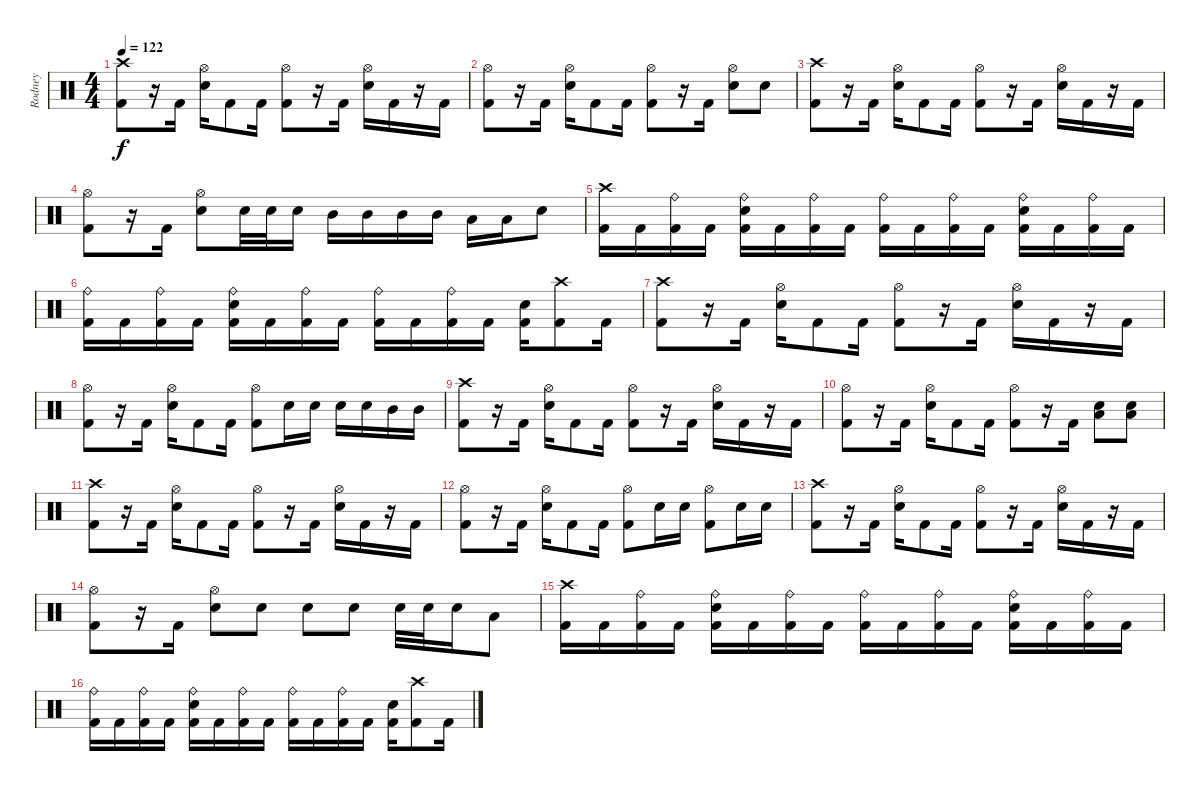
\track ("Rodney" "Rodney") {instrument percussion}
\staff {score}
\articulation defaults
\ts (4 4)
\tempo 122
\clef neutral
\ks c
("Crash high (hit)" "Kick (hit) 2").8{dy f} r.16 "Kick (hit) 2".16 ("Hi-Hat (open)" "Snare (hit) 2").16 "Kick (hit) 2".8 "Kick (hit) 2".16 ("Hi-Hat (open)" "Kick (hit) 2").8 r.16 "Kick (hit) 2".16 ("Hi-Hat (open)" "Snare (hit) 2").16 "Kick (hit) 2".16 r.16 "Kick (hit) 2".16 |
("Hi-Hat (open)" "Kick (hit) 2").8 r.16 "Kick (hit) 2".16 ("Hi-Hat (open)" "Snare (hit) 2").16 "Kick (hit) 2".8 "Kick (hit) 2".16 ("Hi-Hat (open)" "Kick (hit) 2").8 r.16 "Kick (hit) 2".16 ("Hi-Hat (open)" "Snare (hit) 2").8 "Snare (hit) 2".8 |
("Crash high (hit)" "Kick (hit) 2").8 r.16 "Kick (hit) 2".16 ("Hi-Hat (open)" "Snare (hit) 2").16 "Kick (hit) 2".8 "Kick (hit) 2".16 ("Hi-Hat (open)" "Kick (hit) 2").8 r.16 "Kick (hit) 2".16 ("Hi-Hat (open)" "Snare (hit) 2").16 "Kick (hit) 2".16 r.16 "Kick (hit) 2".16 |
("Hi-Hat (open)" "Kick (hit) 2").8 r.16 "Kick (hit) 2".16 ("Hi-Hat (open)" "Snare (hit) 2").8 "Snare (hit) 2".32 "Snare (hit) 2".32 "Snare (hit) 2".16 "Mid Tom (hit)".16 "Mid Tom (hit)".16 "Mid Tom (hit)".16 "Mid Tom (hit)".16 "Low Tom (hit)".16 "Low Tom (hit)".16 "Snare (hit) 2".8 |
("Crash high (hit)" "Kick (hit) 2").16 "Kick (hit) 2".16 ("Ride (bell)" "Kick (hit) 2").16 "Kick (hit) 2".16 ("Ride (bell)" "Snare (hit) 2" "Kick (hit) 2").16 "Kick (hit) 2".16 ("Ride (bell)" "Kick (hit) 2").16 "Kick (hit) 2".16 ("Ride (bell)" "Kick (hit) 2").16 "Kick (hit) 2".16 ("Ride (bell)" "Kick (hit) 2").16 "Kick (hit) 2".16 ("Ride (bell)" "Snare (hit) 2" "Kick (hit) 2").16 "Kick (hit) 2".16 ("Ride (bell)" "Kick (hit) 2").16 "Kick (hit) 2".16 |
("Ride (bell)" "Kick (hit) 2").16 "Kick (hit) 2".16 ("Ride (bell)" "Kick (hit) 2").16 "Kick (hit) 2".16 ("Ride (bell)" "Snare (hit) 2" "Kick (hit) 2").16 "Kick (hit) 2".16 ("Ride (bell)" "Kick (hit) 2").16 "Kick (hit) 2".16 ("Ride (bell)" "Kick (hit) 2").16 "Kick (hit) 2".16 ("Ride (bell)" "Kick (hit) 2").16 "Kick (hit) 2".16 ("Snare (hit) 2" "Kick (hit) 2").16 ("Crash high (hit)" "Kick (hit) 2").8 "Kick (hit) 2".16 |
("Crash high (hit)" "Kick (hit) 2").8 r.16 "Kick (hit) 2".16 ("Hi-Hat (open)" "Snare (hit) 2").16 "Kick (hit) 2".8 "Kick (hit) 2".16 ("Hi-Hat (open)" "Kick (hit) 2").8 r.16 "Kick (hit) 2".16 ("Hi-Hat (open)" "Snare (hit) 2").16 "Kick (hit) 2".16 r.16 "Kick (hit) 2".16 |
("Hi-Hat (open)" "Kick (hit) 2").8 r.16 "Kick (hit) 2".16 ("Hi-Hat (open)" "Snare (hit) 2").16 "Kick (hit) 2".8 "Kick (hit) 2".16 ("Hi-Hat (open)" "Kick (hit) 2").8 "Snare (hit) 2".16 "Snare (hit) 2".16 "Snare (hit) 2".16 "Snare (hit) 2".16 "Mid Tom (hit)".16 "Mid Tom (hit)".16 |
("Crash high (hit)" "Kick (hit) 2").8 r.16 "Kick (hit) 2".16 ("Hi-Hat (open)" "Snare (hit) 2").16 "Kick (hit) 2".8 "Kick (hit) 2".16 ("Hi-Hat (open)" "Kick (hit) 2").8 r.16 "Kick (hit) 2".16 ("Hi-Hat (open)" "Snare (hit) 2").16 "Kick (hit) 2".16 r.16 "Kick (hit) 2".16 |
("Hi-Hat (open)" "Kick (hit) 2").8 r.16 "Kick (hit) 2".16 ("Hi-Hat (open)" "Snare (hit) 2").16 "Kick (hit) 2".8 "Kick (hit) 2".16 ("Hi-Hat (open)" "Kick (hit) 2").8 r.16 "Kick (hit) 2".16 ("Low Tom (hit)" "Snare (hit) 2").8 ("Low Tom (hit)" "Snare (hit) 2").8 |
("Crash high (hit)" "Kick (hit) 2").8 r.16 "Kick (hit) 2".16 ("Hi-Hat (open)" "Snare (hit) 2").16 "Kick (hit) 2".8 "Kick (hit) 2".16 ("Hi-Hat (open)" "Kick (hit) 2").8 r.16 "Kick (hit) 2".16 ("Hi-Hat (open)" "Snare (hit) 2").16 "Kick (hit) 2".16 r.16 "Kick (hit) 2".16 |
("Hi-Hat (open)" "Kick (hit) 2").8 r.16 "Kick (hit) 2".16 ("Hi-Hat (open)" "Snare (hit) 2").16 "Kick (hit) 2".8 "Kick (hit) 2".16 ("Hi-Hat (open)" "Kick (hit) 2").8 "Snare (hit) 2".16 "Snare (hit) 2".16 ("Hi-Hat (open)" "Kick (hit) 2").8 "Snare (hit) 2".16 "Snare (hit) 2".16 |
("Crash high (hit)" "Kick (hit) 2").8 r.16 "Kick (hit) 2".16 ("Hi-Hat (open)" "Snare (hit) 2").16 "Kick (hit) 2".8 "Kick (hit) 2".16 ("Hi-Hat (open)" "Kick (hit) 2").8 r.16 "Kick (hit) 2".16 ("Hi-Hat (open)" "Snare (hit) 2").16 "Kick (hit) 2".16 r.16 "Kick (hit) 2".16 |
("Hi-Hat (open)" "Kick (hit) 2").8 r.16 "Kick (hit) 2".16 ("Hi-Hat (open)" "Snare (hit) 2").8 "Snare (hit) 2".8 "Snare (hit) 2".8 "Snare (hit) 2".8 "Snare (hit) 2".32 "Snare (hit) 2".32 "Snare (hit) 2".16 "Low Tom (hit)".8 |
("Crash high (hit)" "Kick (hit) 2").16 "Kick (hit) 2".16 ("Ride (bell)" "Kick (hit) 2").16 "Kick (hit) 2".16 ("Ride (bell)" "Snare (hit) 2" "Kick (hit) 2").16 "Kick (hit) 2".16 ("Ride (bell)" "Kick (hit) 2").16 "Kick (hit) 2".16 ("Ride (bell)" "Kick (hit) 2").16 "Kick (hit) 2".16 ("Ride (bell)" "Kick (hit) 2").16 "Kick (hit) 2".16 ("Ride (bell)" "Snare (hit) 2" "Kick (hit) 2").16 "Kick (hit) 2".16 ("Ride (bell)" "Kick (hit) 2").16 "Kick (hit) 2".16 |
("Ride (bell)" "Kick (hit) 2").16 "Kick (hit) 2".16 ("Ride (bell)" "Kick (hit) 2").16 "Kick (hit) 2".16 ("Ride (bell)" "Snare (hit) 2" "Kick (hit) 2").16 "Kick (hit) 2".16 ("Ride (bell)" "Kick (hit) 2").16 "Kick (hit) 2".16 ("Ride (bell)" "Kick (hit) 2").16 "Kick (hit) 2".16 ("Ride (bell)" "Kick (hit) 2").16 "Kick (hit) 2".16 ("Snare (hit) 2" "Kick (hit) 2").16 ("Crash high (hit)" "Kick (hit) 2").8 "Kick (hit) 2".16
